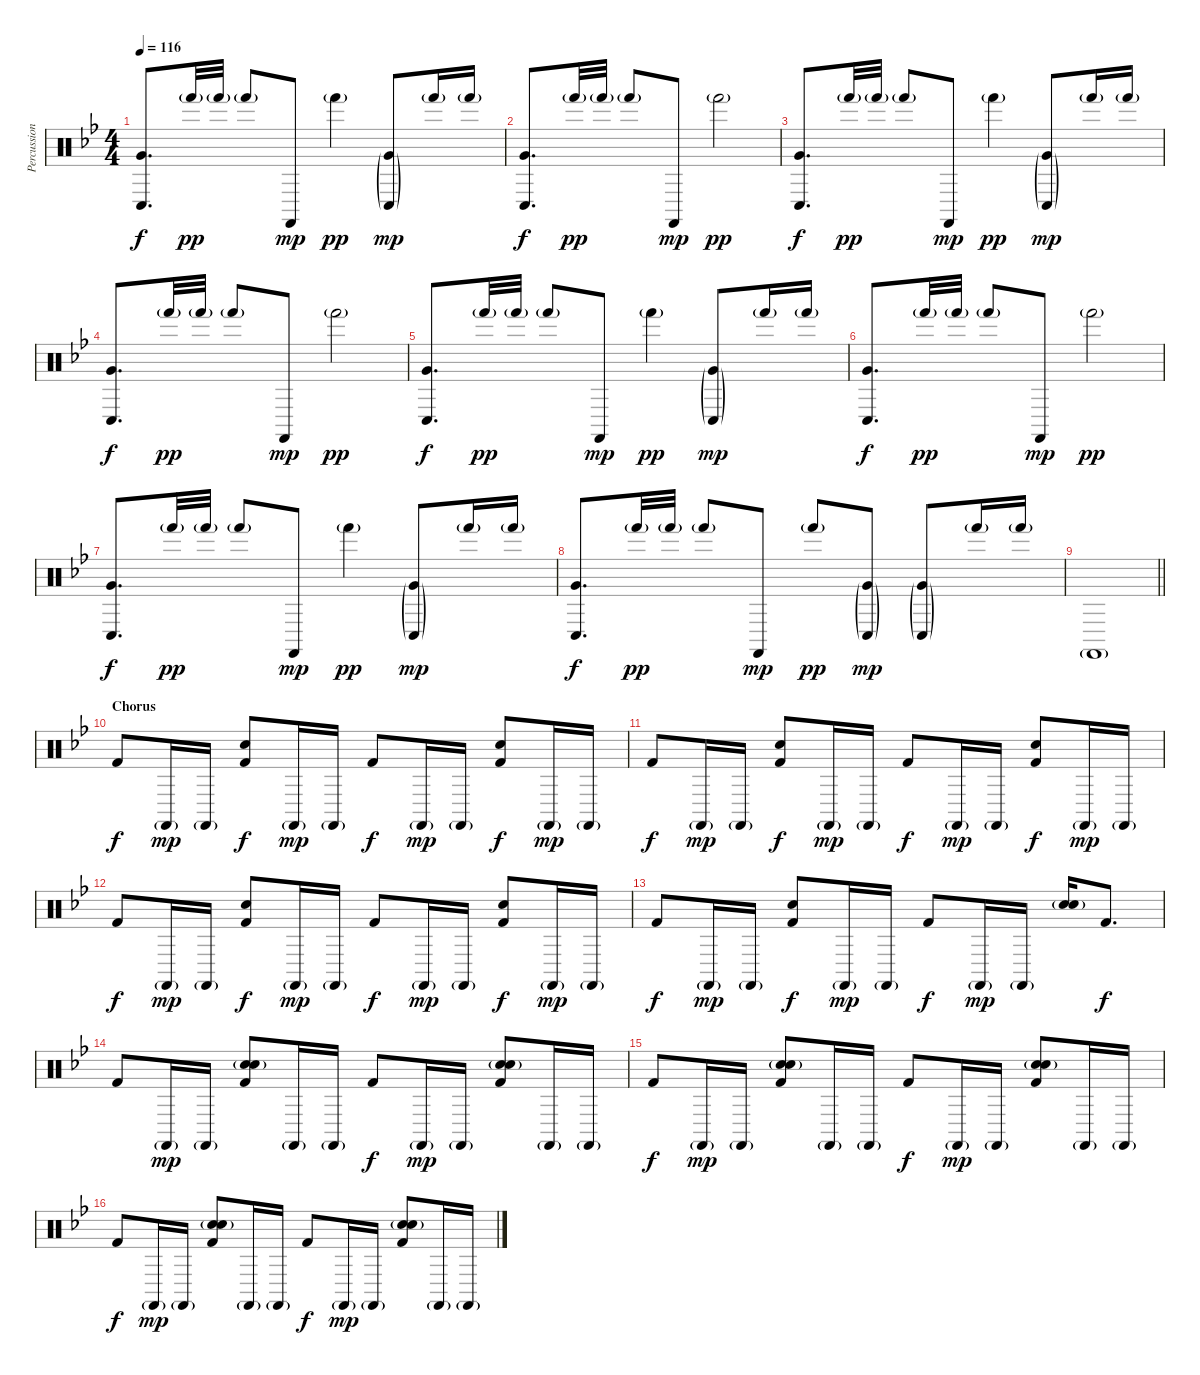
\track ("Percussion" "Percussion") {instrument percussion}
\staff {score}
\articulation defaults
\ts (4 4)
\tempo 116
\clef neutral
\ks gminor
("Conga low (hit)" "Very Low Tom (hit)").8{d dy f} "Hand (hit)"{g}.32{dy pp} "Hand (hit)"{g}.32 "Hand (hit)"{g}.8 "Castanets (hit)".8{dy mp} "Hand (hit)"{g}.4{dy pp} ("Conga low (hit)"{g} "Very Low Tom (hit)"{g}).8{dy mp} "Hand (hit)"{g}.16 "Hand (hit)"{g}.16 |
("Conga low (hit)" "Very Low Tom (hit)").8{d dy f} "Hand (hit)"{g}.32{dy pp} "Hand (hit)"{g}.32 "Hand (hit)"{g}.8 "Castanets (hit)".8{dy mp} "Hand (hit)"{g}.2{dy pp} |
("Conga low (hit)" "Very Low Tom (hit)").8{d dy f} "Hand (hit)"{g}.32{dy pp} "Hand (hit)"{g}.32 "Hand (hit)"{g}.8 "Castanets (hit)".8{dy mp} "Hand (hit)"{g}.4{dy pp} ("Conga low (hit)"{g} "Very Low Tom (hit)"{g}).8{dy mp} "Hand (hit)"{g}.16 "Hand (hit)"{g}.16 |
("Conga low (hit)" "Very Low Tom (hit)").8{d dy f} "Hand (hit)"{g}.32{dy pp} "Hand (hit)"{g}.32 "Hand (hit)"{g}.8 "Castanets (hit)".8{dy mp} "Hand (hit)"{g}.2{dy pp} |
("Conga low (hit)" "Very Low Tom (hit)").8{d dy f} "Hand (hit)"{g}.32{dy pp} "Hand (hit)"{g}.32 "Hand (hit)"{g}.8 "Castanets (hit)".8{dy mp} "Hand (hit)"{g}.4{dy pp} ("Conga low (hit)"{g} "Very Low Tom (hit)"{g}).8{dy mp} "Hand (hit)"{g}.16 "Hand (hit)"{g}.16 |
("Conga low (hit)" "Very Low Tom (hit)").8{d dy f} "Hand (hit)"{g}.32{dy pp} "Hand (hit)"{g}.32 "Hand (hit)"{g}.8 "Castanets (hit)".8{dy mp} "Hand (hit)"{g}.2{dy pp} |
("Conga low (hit)" "Very Low Tom (hit)").8{d dy f} "Hand (hit)"{g}.32{dy pp} "Hand (hit)"{g}.32 "Hand (hit)"{g}.8 "Castanets (hit)".8{dy mp} "Hand (hit)"{g}.4{dy pp} ("Conga low (hit)"{g} "Very Low Tom (hit)"{g}).8{dy mp} "Hand (hit)"{g}.16 "Hand (hit)"{g}.16 |
("Conga low (hit)" "Very Low Tom (hit)").8{d dy f} "Hand (hit)"{g}.32{dy pp} "Hand (hit)"{g}.32 "Hand (hit)"{g}.8 "Castanets (hit)".8{dy mp} "Hand (hit)"{g}.8{dy pp} ("Conga low (hit)"{g} "Very Low Tom (hit)"{g}).8{dy mp} ("Conga low (hit)"{g} "Very Low Tom (hit)"{g}).8 "Hand (hit)"{g}.16 "Hand (hit)"{g}.16 |
\barLineRight lightlight "Castanets (hit)"{g}.1
|
\section ("" "Chorus")
"Kick (hit) 2".8{dy f} "Castanets (hit)"{g}.16{dy mp} "Castanets (hit)"{g}.16 ("Snare (hit) 2" "Kick (hit) 2").8{dy f} "Castanets (hit)"{g}.16{dy mp} "Castanets (hit)"{g}.16 "Kick (hit) 2".8{dy f} "Castanets (hit)"{g}.16{dy mp} "Castanets (hit)"{g}.16 ("Snare (hit) 2" "Kick (hit) 2").8{dy f} "Castanets (hit)"{g}.16{dy mp} "Castanets (hit)"{g}.16 |
"Kick (hit) 2".8{dy f} "Castanets (hit)"{g}.16{dy mp} "Castanets (hit)"{g}.16 ("Snare (hit) 2" "Kick (hit) 2").8{dy f} "Castanets (hit)"{g}.16{dy mp} "Castanets (hit)"{g}.16 "Kick (hit) 2".8{dy f} "Castanets (hit)"{g}.16{dy mp} "Castanets (hit)"{g}.16 ("Snare (hit) 2" "Kick (hit) 2").8{dy f} "Castanets (hit)"{g}.16{dy mp} "Castanets (hit)"{g}.16 |
"Kick (hit) 2".8{dy f} "Castanets (hit)"{g}.16{dy mp} "Castanets (hit)"{g}.16 ("Snare (hit) 2" "Kick (hit) 2").8{dy f} "Castanets (hit)"{g}.16{dy mp} "Castanets (hit)"{g}.16 "Kick (hit) 2".8{dy f} "Castanets (hit)"{g}.16{dy mp} "Castanets (hit)"{g}.16 ("Snare (hit) 2" "Kick (hit) 2").8{dy f} "Castanets (hit)"{g}.16{dy mp} "Castanets (hit)"{g}.16 |
"Kick (hit) 2".8{dy f} "Castanets (hit)"{g}.16{dy mp} "Castanets (hit)"{g}.16 ("Snare (hit) 2" "Kick (hit) 2").8{dy f} "Castanets (hit)"{g}.16{dy mp} "Castanets (hit)"{g}.16 "Kick (hit) 2".8{dy f} "Castanets (hit)"{g}.16{dy mp} "Castanets (hit)"{g}.16 ("Snare (hit) 2" "Hand Clap (hit)"{g}).16 "Kick (hit) 2".8{d dy f} |
"Kick (hit) 2".8 "Castanets (hit)"{g}.16{dy mp} "Castanets (hit)"{g}.16 ("Snare (hit) 2" "Hand Clap (hit)"{g} "Kick (hit) 2").8 "Castanets (hit)"{g}.16 "Castanets (hit)"{g}.16 "Kick (hit) 2".8{dy f} "Castanets (hit)"{g}.16{dy mp} "Castanets (hit)"{g}.16 ("Snare (hit) 2" "Hand Clap (hit)"{g} "Kick (hit) 2").8 "Castanets (hit)"{g}.16 "Castanets (hit)"{g}.16 |
"Kick (hit) 2".8{dy f} "Castanets (hit)"{g}.16{dy mp} "Castanets (hit)"{g}.16 ("Snare (hit) 2" "Hand Clap (hit)"{g} "Kick (hit) 2").8 "Castanets (hit)"{g}.16 "Castanets (hit)"{g}.16 "Kick (hit) 2".8{dy f} "Castanets (hit)"{g}.16{dy mp} "Castanets (hit)"{g}.16 ("Snare (hit) 2" "Hand Clap (hit)"{g} "Kick (hit) 2").8 "Castanets (hit)"{g}.16 "Castanets (hit)"{g}.16 |
"Kick (hit) 2".8{dy f} "Castanets (hit)"{g}.16{dy mp} "Castanets (hit)"{g}.16 ("Snare (hit) 2" "Hand Clap (hit)"{g} "Kick (hit) 2").8 "Castanets (hit)"{g}.16 "Castanets (hit)"{g}.16 "Kick (hit) 2".8{dy f} "Castanets (hit)"{g}.16{dy mp} "Castanets (hit)"{g}.16 ("Snare (hit) 2" "Hand Clap (hit)"{g} "Kick (hit) 2").8 "Castanets (hit)"{g}.16 "Castanets (hit)"{g}.16
